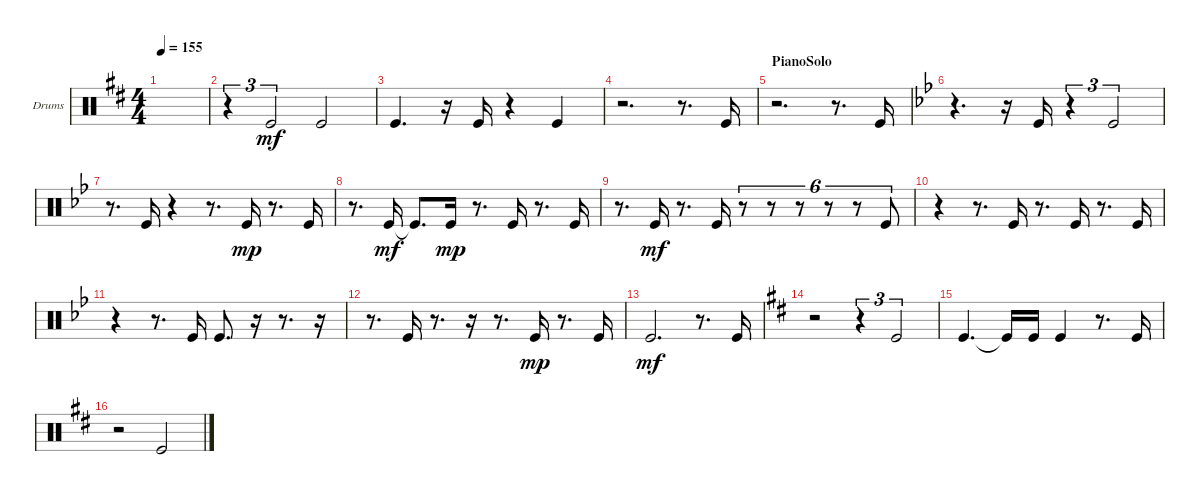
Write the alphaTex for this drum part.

\bracketExtendMode groupsimilarinstruments
\firstSystemTrackNameOrientation horizontal
\otherSystemsTrackNameOrientation horizontal
\track ("Kick" "Drums") {instrument percussion}
\staff {score}
\articulation defaults
\ts (4 4)
\tempo 155
\clef neutral
\ks d
|
r.4{tu (3 2)} "Kick (hit)".2{tu (3 2) dy mf} "Kick (hit)".2 |
"Kick (hit)".4{d} r.16 "Kick (hit)".16 r.4 "Kick (hit)".4 |
r.2{d} r.8{d} "Kick (hit)".16 |
\section ("" "PianoSolo")
r.2{d} r.8{d} "Kick (hit)".16 |
\ks bb
r.4{d} r.16 "Kick (hit)".16 r.4{tu (3 2)} "Kick (hit)".2{tu (3 2)} |
r.8{d} "Kick (hit)".16 r.4 r.8{d} "Kick (hit)".16{dy mp} r.8{d} "Kick (hit)".16 |
r.8{d} "Kick (hit)".16{dy mf} "Kick (hit)"{t}.8{d} "Kick (hit)".16{dy mp} r.8{d} "Kick (hit)".16 r.8{d} "Kick (hit)".16 |
r.8{d} "Kick (hit)".16{dy mf} r.8{d} "Kick (hit)".16 r.8{tu (6 4)} r.8{tu (6 4)} r.8{tu (6 4)} r.8{tu (6 4)} r.8{tu (6 4)} "Kick (hit)".8{tu (6 4)} |
r.4 r.8{d} "Kick (hit)".16 r.8{d} "Kick (hit)".16 r.8{d} "Kick (hit)".16 |
r.4 r.8{d} "Kick (hit)".16 "Kick (hit)".8{d} r.16 r.8{d} r.16 |
r.8{d} "Kick (hit)".16 r.8{d} r.16 r.8{d} "Kick (hit)".16{dy mp} r.8{d} "Kick (hit)".16 |
"Kick (hit)".2{d dy mf} r.8{d} "Kick (hit)".16 |
\ks d
r.2 r.4{tu (3 2)} "Kick (hit)".2{tu (3 2)} |
"Kick (hit)".4{d} "Kick (hit)"{t}.16 "Kick (hit)".16 "Kick (hit)".4 r.8{d} "Kick (hit)".16 |
r.2 "Kick (hit)".2
